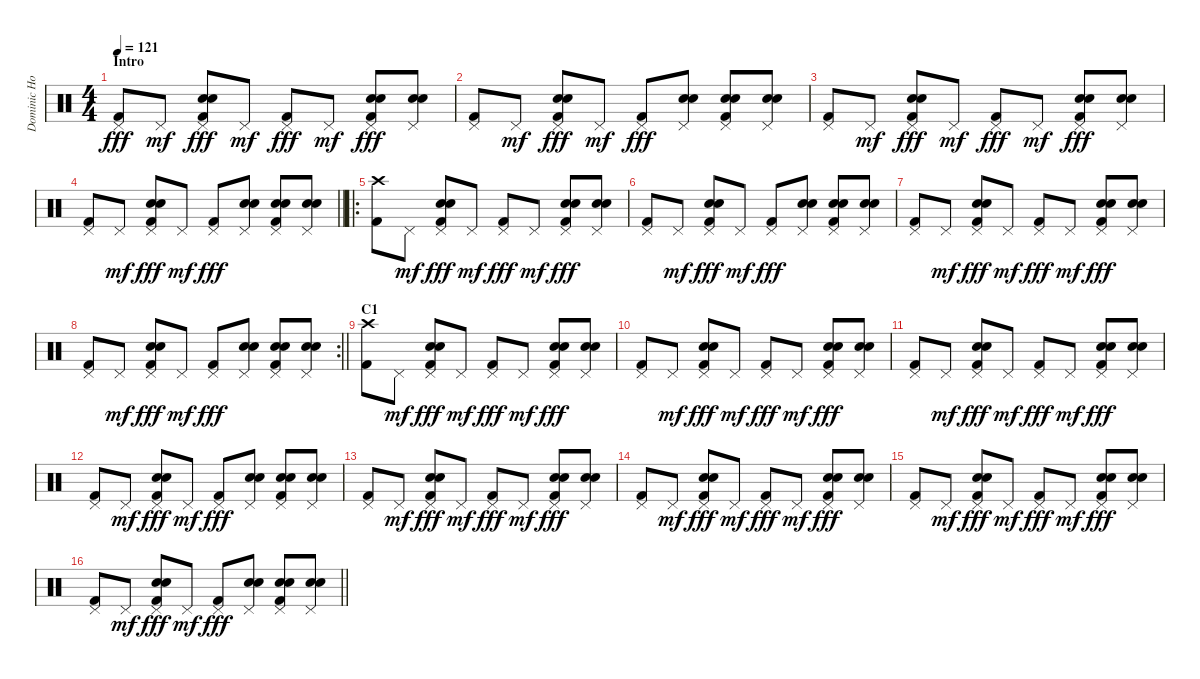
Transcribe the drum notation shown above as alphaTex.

\track ("Dominic Howard" "Dominic Ho") {instrument percussion}
\staff {score}
\articulation defaults
\ts (4 4)
\section ("" "Intro")
\tempo 121
\clef neutral
\ks c
("Pedal Hi-Hat (hit)" "Kick (hit) 2").8{dy fff} "Pedal Hi-Hat (hit)".8{dy mf} ("Pedal Hi-Hat (hit)" "Hand Clap (hit)" "Electric Snare (hit)" "Kick (hit) 2").8{dy fff} "Pedal Hi-Hat (hit)".8{dy mf} ("Pedal Hi-Hat (hit)" "Kick (hit) 2").8{dy fff} "Pedal Hi-Hat (hit)".8{dy mf} ("Pedal Hi-Hat (hit)" "Hand Clap (hit)" "Electric Snare (hit)" "Kick (hit) 2").8{dy fff} ("Pedal Hi-Hat (hit)" "Hand Clap (hit)" "Electric Snare (hit)").8 |
("Pedal Hi-Hat (hit)" "Kick (hit) 2").8 "Pedal Hi-Hat (hit)".8{dy mf} ("Pedal Hi-Hat (hit)" "Hand Clap (hit)" "Electric Snare (hit)" "Kick (hit) 2").8{dy fff} "Pedal Hi-Hat (hit)".8{dy mf} ("Pedal Hi-Hat (hit)" "Kick (hit) 2").8{dy fff} ("Pedal Hi-Hat (hit)" "Hand Clap (hit)" "Electric Snare (hit)").8 ("Pedal Hi-Hat (hit)" "Hand Clap (hit)" "Electric Snare (hit)" "Kick (hit) 2").8 ("Pedal Hi-Hat (hit)" "Hand Clap (hit)" "Electric Snare (hit)").8 |
("Pedal Hi-Hat (hit)" "Kick (hit) 2").8 "Pedal Hi-Hat (hit)".8{dy mf} ("Pedal Hi-Hat (hit)" "Hand Clap (hit)" "Electric Snare (hit)" "Kick (hit) 2").8{dy fff} "Pedal Hi-Hat (hit)".8{dy mf} ("Pedal Hi-Hat (hit)" "Kick (hit) 2").8{dy fff} "Pedal Hi-Hat (hit)".8{dy mf} ("Pedal Hi-Hat (hit)" "Hand Clap (hit)" "Electric Snare (hit)" "Kick (hit) 2").8{dy fff} ("Pedal Hi-Hat (hit)" "Hand Clap (hit)" "Electric Snare (hit)").8 |
\barLineRight lightlight
("Pedal Hi-Hat (hit)" "Kick (hit) 2").8 "Pedal Hi-Hat (hit)".8{dy mf} ("Pedal Hi-Hat (hit)" "Hand Clap (hit)" "Electric Snare (hit)" "Kick (hit) 2").8{dy fff} "Pedal Hi-Hat (hit)".8{dy mf} ("Pedal Hi-Hat (hit)" "Kick (hit) 2").8{dy fff} ("Pedal Hi-Hat (hit)" "Hand Clap (hit)" "Electric Snare (hit)").8 ("Pedal Hi-Hat (hit)" "Hand Clap (hit)" "Electric Snare (hit)" "Kick (hit) 2").8 ("Pedal Hi-Hat (hit)" "Hand Clap (hit)" "Electric Snare (hit)").8 |
\ro
("Crash high (hit)" "Kick (hit) 2").8 "Pedal Hi-Hat (hit)".8{dy mf} ("Pedal Hi-Hat (hit)" "Hand Clap (hit)" "Electric Snare (hit)" "Kick (hit) 2").8{dy fff} "Pedal Hi-Hat (hit)".8{dy mf} ("Pedal Hi-Hat (hit)" "Kick (hit) 2").8{dy fff} "Pedal Hi-Hat (hit)".8{dy mf} ("Pedal Hi-Hat (hit)" "Hand Clap (hit)" "Electric Snare (hit)" "Kick (hit) 2").8{dy fff} ("Pedal Hi-Hat (hit)" "Hand Clap (hit)" "Electric Snare (hit)").8 |
("Pedal Hi-Hat (hit)" "Kick (hit) 2").8 "Pedal Hi-Hat (hit)".8{dy mf} ("Pedal Hi-Hat (hit)" "Hand Clap (hit)" "Electric Snare (hit)" "Kick (hit) 2").8{dy fff} "Pedal Hi-Hat (hit)".8{dy mf} ("Pedal Hi-Hat (hit)" "Kick (hit) 2").8{dy fff} ("Pedal Hi-Hat (hit)" "Hand Clap (hit)" "Electric Snare (hit)").8 ("Pedal Hi-Hat (hit)" "Hand Clap (hit)" "Electric Snare (hit)" "Kick (hit) 2").8 ("Pedal Hi-Hat (hit)" "Hand Clap (hit)" "Electric Snare (hit)").8 |
("Pedal Hi-Hat (hit)" "Kick (hit) 2").8 "Pedal Hi-Hat (hit)".8{dy mf} ("Pedal Hi-Hat (hit)" "Hand Clap (hit)" "Electric Snare (hit)" "Kick (hit) 2").8{dy fff} "Pedal Hi-Hat (hit)".8{dy mf} ("Pedal Hi-Hat (hit)" "Kick (hit) 2").8{dy fff} "Pedal Hi-Hat (hit)".8{dy mf} ("Pedal Hi-Hat (hit)" "Hand Clap (hit)" "Electric Snare (hit)" "Kick (hit) 2").8{dy fff} ("Pedal Hi-Hat (hit)" "Hand Clap (hit)" "Electric Snare (hit)").8 |
\rc 2
\barLineRight lightlight
("Pedal Hi-Hat (hit)" "Kick (hit) 2").8 "Pedal Hi-Hat (hit)".8{dy mf} ("Pedal Hi-Hat (hit)" "Hand Clap (hit)" "Electric Snare (hit)" "Kick (hit) 2").8{dy fff} "Pedal Hi-Hat (hit)".8{dy mf} ("Pedal Hi-Hat (hit)" "Kick (hit) 2").8{dy fff} ("Pedal Hi-Hat (hit)" "Hand Clap (hit)" "Electric Snare (hit)").8 ("Pedal Hi-Hat (hit)" "Hand Clap (hit)" "Electric Snare (hit)" "Kick (hit) 2").8 ("Pedal Hi-Hat (hit)" "Hand Clap (hit)" "Electric Snare (hit)").8 |
\section ("" "C1")
("Crash high (hit)" "Kick (hit) 2").8 "Pedal Hi-Hat (hit)".8{dy mf} ("Pedal Hi-Hat (hit)" "Hand Clap (hit)" "Electric Snare (hit)" "Kick (hit) 2").8{dy fff} "Pedal Hi-Hat (hit)".8{dy mf} ("Pedal Hi-Hat (hit)" "Kick (hit) 2").8{dy fff} "Pedal Hi-Hat (hit)".8{dy mf} ("Pedal Hi-Hat (hit)" "Hand Clap (hit)" "Electric Snare (hit)" "Kick (hit) 2").8{dy fff} ("Pedal Hi-Hat (hit)" "Hand Clap (hit)" "Electric Snare (hit)").8 |
("Pedal Hi-Hat (hit)" "Kick (hit) 2").8 "Pedal Hi-Hat (hit)".8{dy mf} ("Pedal Hi-Hat (hit)" "Hand Clap (hit)" "Electric Snare (hit)" "Kick (hit) 2").8{dy fff} "Pedal Hi-Hat (hit)".8{dy mf} ("Pedal Hi-Hat (hit)" "Kick (hit) 2").8{dy fff} "Pedal Hi-Hat (hit)".8{dy mf} ("Pedal Hi-Hat (hit)" "Hand Clap (hit)" "Electric Snare (hit)" "Kick (hit) 2").8{dy fff} ("Pedal Hi-Hat (hit)" "Hand Clap (hit)" "Electric Snare (hit)").8 |
("Pedal Hi-Hat (hit)" "Kick (hit) 2").8 "Pedal Hi-Hat (hit)".8{dy mf} ("Pedal Hi-Hat (hit)" "Hand Clap (hit)" "Electric Snare (hit)" "Kick (hit) 2").8{dy fff} "Pedal Hi-Hat (hit)".8{dy mf} ("Pedal Hi-Hat (hit)" "Kick (hit) 2").8{dy fff} "Pedal Hi-Hat (hit)".8{dy mf} ("Pedal Hi-Hat (hit)" "Hand Clap (hit)" "Electric Snare (hit)" "Kick (hit) 2").8{dy fff} ("Pedal Hi-Hat (hit)" "Hand Clap (hit)" "Electric Snare (hit)").8 |
("Pedal Hi-Hat (hit)" "Kick (hit) 2").8 "Pedal Hi-Hat (hit)".8{dy mf} ("Pedal Hi-Hat (hit)" "Hand Clap (hit)" "Electric Snare (hit)" "Kick (hit) 2").8{dy fff} "Pedal Hi-Hat (hit)".8{dy mf} ("Pedal Hi-Hat (hit)" "Kick (hit) 2").8{dy fff} ("Pedal Hi-Hat (hit)" "Hand Clap (hit)" "Electric Snare (hit)").8 ("Pedal Hi-Hat (hit)" "Hand Clap (hit)" "Electric Snare (hit)" "Kick (hit) 2").8 ("Pedal Hi-Hat (hit)" "Hand Clap (hit)" "Electric Snare (hit)").8 |
("Pedal Hi-Hat (hit)" "Kick (hit) 2").8 "Pedal Hi-Hat (hit)".8{dy mf} ("Pedal Hi-Hat (hit)" "Hand Clap (hit)" "Electric Snare (hit)" "Kick (hit) 2").8{dy fff} "Pedal Hi-Hat (hit)".8{dy mf} ("Pedal Hi-Hat (hit)" "Kick (hit) 2").8{dy fff} "Pedal Hi-Hat (hit)".8{dy mf} ("Pedal Hi-Hat (hit)" "Hand Clap (hit)" "Electric Snare (hit)" "Kick (hit) 2").8{dy fff} ("Pedal Hi-Hat (hit)" "Hand Clap (hit)" "Electric Snare (hit)").8 |
("Pedal Hi-Hat (hit)" "Kick (hit) 2").8 "Pedal Hi-Hat (hit)".8{dy mf} ("Pedal Hi-Hat (hit)" "Hand Clap (hit)" "Electric Snare (hit)" "Kick (hit) 2").8{dy fff} "Pedal Hi-Hat (hit)".8{dy mf} ("Pedal Hi-Hat (hit)" "Kick (hit) 2").8{dy fff} "Pedal Hi-Hat (hit)".8{dy mf} ("Pedal Hi-Hat (hit)" "Hand Clap (hit)" "Electric Snare (hit)" "Kick (hit) 2").8{dy fff} ("Pedal Hi-Hat (hit)" "Hand Clap (hit)" "Electric Snare (hit)").8 |
("Pedal Hi-Hat (hit)" "Kick (hit) 2").8 "Pedal Hi-Hat (hit)".8{dy mf} ("Pedal Hi-Hat (hit)" "Hand Clap (hit)" "Electric Snare (hit)" "Kick (hit) 2").8{dy fff} "Pedal Hi-Hat (hit)".8{dy mf} ("Pedal Hi-Hat (hit)" "Kick (hit) 2").8{dy fff} "Pedal Hi-Hat (hit)".8{dy mf} ("Pedal Hi-Hat (hit)" "Hand Clap (hit)" "Electric Snare (hit)" "Kick (hit) 2").8{dy fff} ("Pedal Hi-Hat (hit)" "Hand Clap (hit)" "Electric Snare (hit)").8 |
\barLineRight lightlight
("Pedal Hi-Hat (hit)" "Kick (hit) 2").8 "Pedal Hi-Hat (hit)".8{dy mf} ("Pedal Hi-Hat (hit)" "Hand Clap (hit)" "Electric Snare (hit)" "Kick (hit) 2").8{dy fff} "Pedal Hi-Hat (hit)".8{dy mf} ("Pedal Hi-Hat (hit)" "Kick (hit) 2").8{dy fff} ("Pedal Hi-Hat (hit)" "Hand Clap (hit)" "Electric Snare (hit)").8 ("Pedal Hi-Hat (hit)" "Hand Clap (hit)" "Electric Snare (hit)" "Kick (hit) 2").8 ("Pedal Hi-Hat (hit)" "Hand Clap (hit)" "Electric Snare (hit)").8
